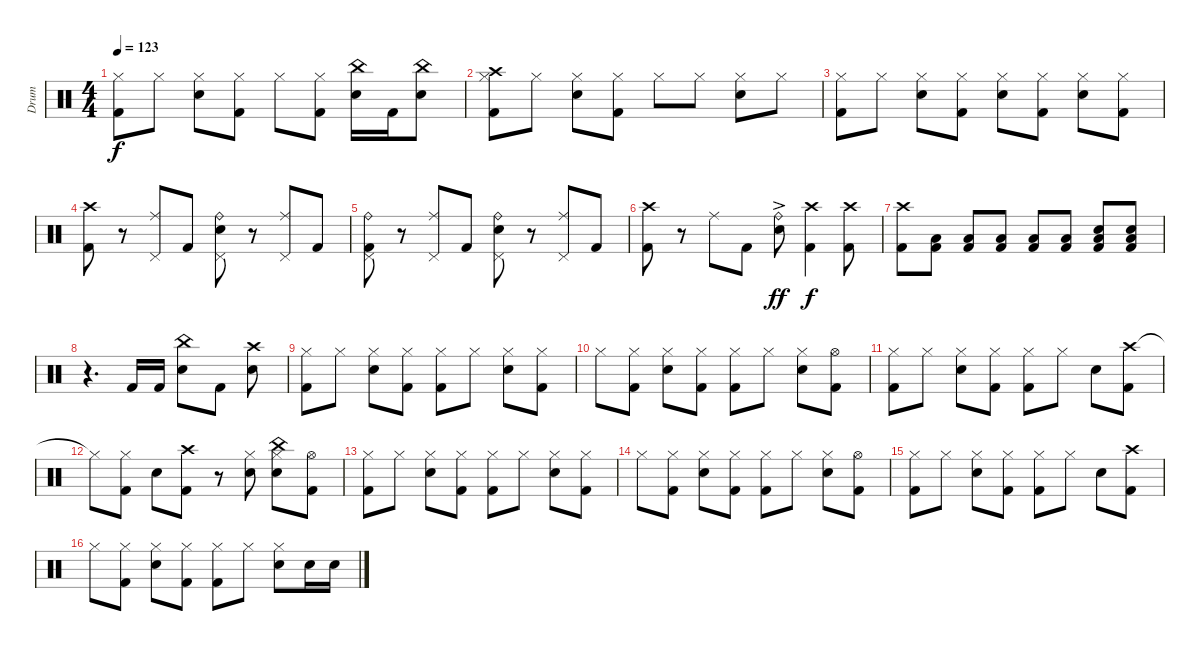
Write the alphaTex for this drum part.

\track ("Drum" "Drum") {instrument percussion}
\staff {score}
\articulation defaults
\ts (4 4)
\tempo 123
\clef neutral
\ks c
("Hi-Hat (closed)" "Kick (hit) 2").8{dy f} "Hi-Hat (closed)".8 ("Hi-Hat (closed)" "Electric Snare (hit)").8 ("Hi-Hat (closed)" "Kick (hit) 2").8 "Hi-Hat (closed)".8 ("Hi-Hat (closed)" "Kick (hit) 2").8 ("China (hit)" "Electric Snare (hit)").16 "Kick (hit) 2".16 ("China (hit)" "Electric Snare (hit)").8 |
("Crash high (hit)" "Hi-Hat (closed)" "Kick (hit) 2").8 "Hi-Hat (closed)".8 ("Hi-Hat (closed)" "Electric Snare (hit)").8 ("Hi-Hat (closed)" "Kick (hit) 2").8 "Hi-Hat (closed)".8 "Hi-Hat (closed)".8 ("Hi-Hat (closed)" "Electric Snare (hit)").8 "Hi-Hat (closed)".8 |
("Hi-Hat (closed)" "Kick (hit) 2").8 "Hi-Hat (closed)".8 ("Hi-Hat (closed)" "Electric Snare (hit)").8 ("Hi-Hat (closed)" "Kick (hit) 2").8 ("Hi-Hat (closed)" "Electric Snare (hit)").8 ("Hi-Hat (closed)" "Kick (hit) 2").8 ("Hi-Hat (closed)" "Electric Snare (hit)").8 ("Hi-Hat (closed)" "Kick (hit) 2").8 |
("Crash high (hit)" "Kick (hit) 2").8 r.8 ("Ride (middle)" "Pedal Hi-Hat (hit)").8 "Kick (hit) 2".8 ("Ride (bell)" "Electric Snare (hit)" "Pedal Hi-Hat (hit)").8 r.8 ("Ride (middle)" "Pedal Hi-Hat (hit)").8 "Kick (hit) 2".8 |
("Ride (bell)" "Kick (hit) 2" "Pedal Hi-Hat (hit)").8 r.8 ("Ride (middle)" "Pedal Hi-Hat (hit)").8 "Kick (hit) 2".8 ("Ride (bell)" "Electric Snare (hit)" "Pedal Hi-Hat (hit)").8 r.8 ("Ride (middle)" "Pedal Hi-Hat (hit)").8 "Kick (hit) 2".8 |
("Crash high (hit)" "Kick (hit) 2").8 r.8 "Ride (middle)".8 "Kick (hit) 2".8 ("Ride (bell)" "Electric Snare (hit)"{ac}).8{dy ff} ("Crash high (hit)" "Kick (hit) 2").4{dy f} ("Crash high (hit)" "Kick (hit) 2").8 |
("Crash high (hit)" "Kick (hit) 2").8 ("Low Floor Tom (hit)" "Kick (hit) 2").8 ("Low Floor Tom (hit)" "Kick (hit) 2").8 ("Low Floor Tom (hit)" "Kick (hit) 2").8 ("Low Floor Tom (hit)" "Kick (hit) 2").8 ("Low Floor Tom (hit)" "Kick (hit) 2").8 ("Low Floor Tom (hit)" "Electric Snare (hit)" "Kick (hit) 2").8 ("Low Floor Tom (hit)" "Electric Snare (hit)" "Kick (hit) 2").8 |
r.4{d} "Kick (hit) 2".16 "Kick (hit) 2".16 ("China (hit)" "Electric Snare (hit)").8 "Kick (hit) 2".8 ("Crash high (hit)" "Electric Snare (hit)").8 |
("Hi-Hat (closed)" "Kick (hit) 2").8 "Hi-Hat (closed)".8 ("Hi-Hat (closed)" "Electric Snare (hit)").8 ("Hi-Hat (closed)" "Kick (hit) 2").8 ("Hi-Hat (closed)" "Kick (hit) 2").8 "Hi-Hat (closed)".8 ("Hi-Hat (closed)" "Electric Snare (hit)").8 ("Hi-Hat (closed)" "Kick (hit) 2").8 |
"Hi-Hat (closed)".8 ("Hi-Hat (closed)" "Kick (hit) 2").8 ("Hi-Hat (closed)" "Electric Snare (hit)").8 ("Hi-Hat (closed)" "Kick (hit) 2").8 ("Hi-Hat (closed)" "Kick (hit) 2").8 "Hi-Hat (closed)".8 ("Hi-Hat (closed)" "Electric Snare (hit)").8 ("Hi-Hat (open)" "Kick (hit) 2").8 |
("Hi-Hat (closed)" "Kick (hit) 2").8 "Hi-Hat (closed)".8 ("Hi-Hat (closed)" "Electric Snare (hit)").8 ("Hi-Hat (closed)" "Kick (hit) 2").8 ("Hi-Hat (closed)" "Kick (hit) 2").8 "Hi-Hat (closed)".8 "Electric Snare (hit)".8 ("Crash high (hit)" "Kick (hit) 2").8 |
"Hi-Hat (closed)"{t}.8 ("Hi-Hat (closed)" "Kick (hit) 2").8 "Electric Snare (hit)".8 ("Crash high (hit)" "Kick (hit) 2").8 r.8 ("Hi-Hat (closed)" "Electric Snare (hit)").8 ("China (hit)" "Hi-Hat (closed)" "Electric Snare (hit)").8 ("Hi-Hat (open)" "Kick (hit) 2").8 |
("Hi-Hat (closed)" "Kick (hit) 2").8 "Hi-Hat (closed)".8 ("Hi-Hat (closed)" "Electric Snare (hit)").8 ("Hi-Hat (closed)" "Kick (hit) 2").8 ("Hi-Hat (closed)" "Kick (hit) 2").8 "Hi-Hat (closed)".8 ("Hi-Hat (closed)" "Electric Snare (hit)").8 ("Hi-Hat (closed)" "Kick (hit) 2").8 |
"Hi-Hat (closed)".8 ("Hi-Hat (closed)" "Kick (hit) 2").8 ("Hi-Hat (closed)" "Electric Snare (hit)").8 ("Hi-Hat (closed)" "Kick (hit) 2").8 ("Hi-Hat (closed)" "Kick (hit) 2").8 "Hi-Hat (closed)".8 ("Hi-Hat (closed)" "Electric Snare (hit)").8 ("Hi-Hat (open)" "Kick (hit) 2").8 |
("Hi-Hat (closed)" "Kick (hit) 2").8 "Hi-Hat (closed)".8 ("Hi-Hat (closed)" "Electric Snare (hit)").8 ("Hi-Hat (closed)" "Kick (hit) 2").8 ("Hi-Hat (closed)" "Kick (hit) 2").8 "Hi-Hat (closed)".8 "Electric Snare (hit)".8 ("Crash high (hit)" "Kick (hit) 2").8 |
"Hi-Hat (closed)".8 ("Hi-Hat (closed)" "Kick (hit) 2").8 ("Hi-Hat (closed)" "Electric Snare (hit)").8 ("Hi-Hat (closed)" "Kick (hit) 2").8 ("Hi-Hat (closed)" "Kick (hit) 2").8 "Hi-Hat (closed)".8 ("Hi-Hat (closed)" "Electric Snare (hit)").8 "Electric Snare (hit)".16 "Electric Snare (hit)".16
